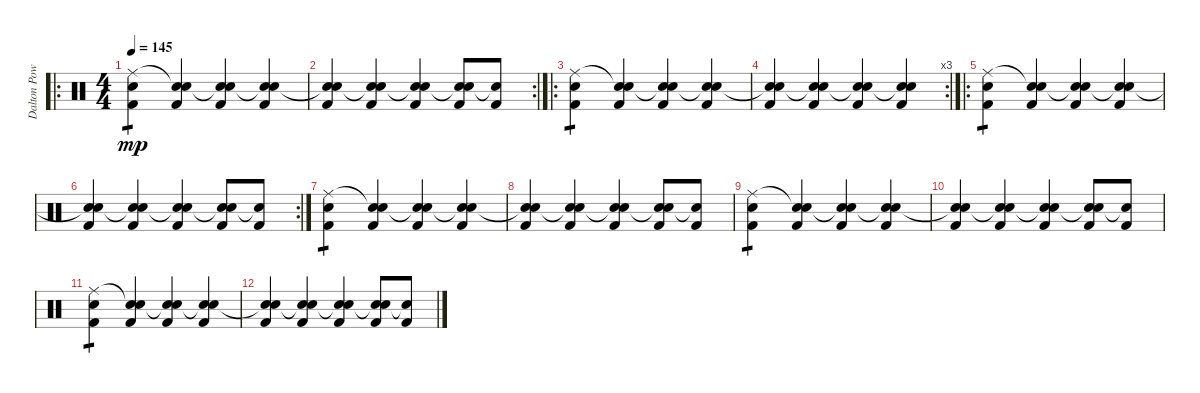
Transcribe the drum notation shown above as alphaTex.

\track ("Dalton Powell" "Dalton Pow") {instrument percussion}
\staff {score}
\articulation defaults
\ro
\ts (4 4)
\tempo 145
\clef neutral
\ks c
("Ride (middle)" "Snare (hit) 2" "Kick (hit) 2").4{tp 1 dy mp} ("Snare (hit)"{t} "Snare (hit) 2" "Kick (hit) 2").4 ("Snare (hit)"{t} "Snare (hit) 2" "Kick (hit) 2").4 ("Snare (hit)"{t} "Snare (hit) 2" "Kick (hit) 2").4 |
\rc 2
("Snare (hit)"{t} "Snare (hit) 2" "Kick (hit) 2").4 ("Snare (hit)"{t} "Snare (hit) 2" "Kick (hit) 2").4 ("Snare (hit)"{t} "Snare (hit) 2" "Kick (hit) 2").4 ("Snare (hit)"{t} "Snare (hit) 2" "Kick (hit) 2").8 ("Snare (hit)"{t} "Kick (hit) 2").8 |
\ro
("Ride (middle)" "Snare (hit) 2" "Kick (hit) 2").4{tp 1} ("Snare (hit)"{t} "Snare (hit) 2" "Kick (hit) 2").4 ("Snare (hit)"{t} "Snare (hit) 2" "Kick (hit) 2").4 ("Snare (hit)"{t} "Snare (hit) 2" "Kick (hit) 2").4 |
\rc 3
("Snare (hit)"{t} "Snare (hit) 2" "Kick (hit) 2").4 ("Snare (hit)"{t} "Snare (hit) 2" "Kick (hit) 2").4 ("Snare (hit)"{t} "Snare (hit) 2" "Kick (hit) 2").4 ("Snare (hit)"{t} "Snare (hit) 2" "Kick (hit) 2").4 |
\ro
("Ride (middle)" "Snare (hit) 2" "Kick (hit) 2").4{tp 1} ("Snare (hit)"{t} "Snare (hit) 2" "Kick (hit) 2").4 ("Snare (hit)"{t} "Snare (hit) 2" "Kick (hit) 2").4 ("Snare (hit)"{t} "Snare (hit) 2" "Kick (hit) 2").4 |
\rc 2
("Snare (hit)"{t} "Snare (hit) 2" "Kick (hit) 2").4 ("Snare (hit)"{t} "Snare (hit) 2" "Kick (hit) 2").4 ("Snare (hit)"{t} "Snare (hit) 2" "Kick (hit) 2").4 ("Snare (hit)"{t} "Snare (hit) 2" "Kick (hit) 2").8 ("Snare (hit)"{t} "Kick (hit) 2").8 |
("Ride (middle)" "Snare (hit) 2" "Kick (hit) 2").4{tp 1 volume 6} ("Snare (hit)"{t} "Snare (hit) 2" "Kick (hit) 2").4 ("Snare (hit)"{t} "Snare (hit) 2" "Kick (hit) 2").4 ("Snare (hit)"{t} "Snare (hit) 2" "Kick (hit) 2").4 |
("Snare (hit)"{t} "Snare (hit) 2" "Kick (hit) 2").4 ("Snare (hit)"{t} "Snare (hit) 2" "Kick (hit) 2").4 ("Snare (hit)"{t} "Snare (hit) 2" "Kick (hit) 2").4 ("Snare (hit)"{t} "Snare (hit) 2" "Kick (hit) 2").8 ("Snare (hit)"{t} "Kick (hit) 2").8 |
("Ride (middle)" "Snare (hit) 2" "Kick (hit) 2").4{tp 1} ("Snare (hit)"{t} "Snare (hit) 2" "Kick (hit) 2").4 ("Snare (hit)"{t} "Snare (hit) 2" "Kick (hit) 2").4 ("Snare (hit)"{t} "Snare (hit) 2" "Kick (hit) 2").4 |
("Snare (hit)"{t} "Snare (hit) 2" "Kick (hit) 2").4 ("Snare (hit)"{t} "Snare (hit) 2" "Kick (hit) 2").4{volume 0} ("Snare (hit)"{t} "Snare (hit) 2" "Kick (hit) 2").4 ("Snare (hit)"{t} "Snare (hit) 2" "Kick (hit) 2").8 ("Snare (hit)"{t} "Kick (hit) 2").8 |
("Ride (middle)" "Snare (hit) 2" "Kick (hit) 2").4{tp 1} ("Snare (hit)"{t} "Snare (hit) 2" "Kick (hit) 2").4 ("Snare (hit)"{t} "Snare (hit) 2" "Kick (hit) 2").4 ("Snare (hit)"{t} "Snare (hit) 2" "Kick (hit) 2").4 |
("Snare (hit)"{t} "Snare (hit) 2" "Kick (hit) 2").4 ("Snare (hit)"{t} "Snare (hit) 2" "Kick (hit) 2").4 ("Snare (hit)"{t} "Snare (hit) 2" "Kick (hit) 2").4 ("Snare (hit)"{t} "Snare (hit) 2" "Kick (hit) 2").8 ("Snare (hit)"{t} "Kick (hit) 2").8
